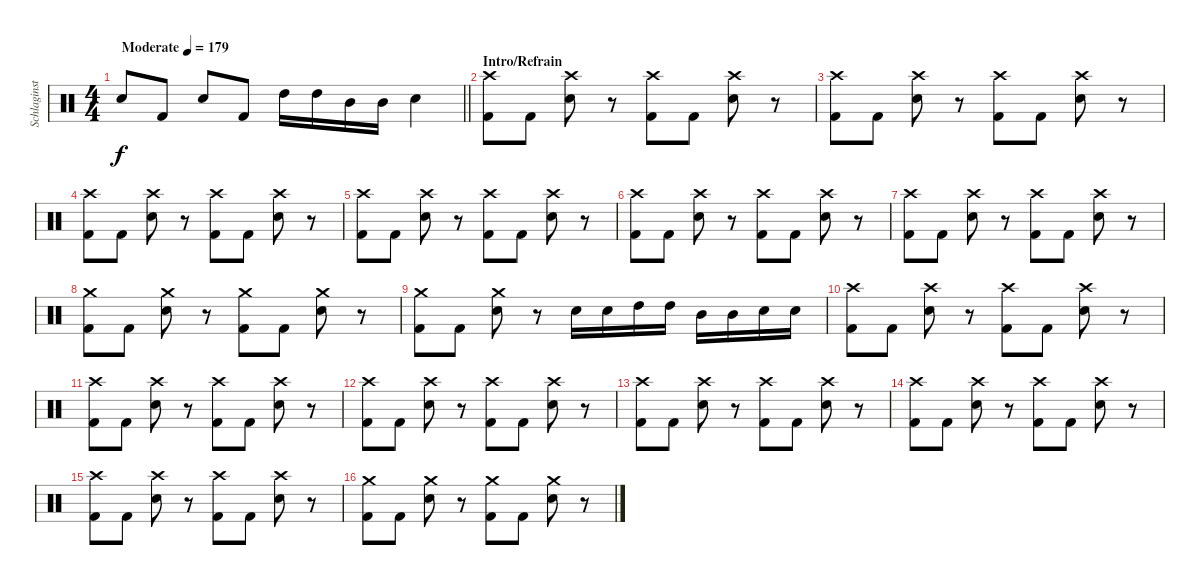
\track ("Schlaginstrumente - Auswahl" "Schlaginst") {instrument percussion}
\staff {score}
\articulation defaults
\ts (4 4)
\tempo (179 "Moderate")
\clef neutral
\barLineRight lightlight
\ks c "Electric Snare (hit)".8{dy f} "Kick (hit) 2".8 "Electric Snare (hit)".8 "Kick (hit) 2".8 "High Tom (hit)".16 "High Tom (hit)".16 "Mid Tom (hit)".16 "Mid Tom (hit)".16 "Electric Snare (hit)".4
|
\section ("" "Intro/Refrain")
("Kick (hit) 2" "Crash high (hit)").8 "Kick (hit) 2".8 ("Crash high (hit)" "Electric Snare (hit)").8 r.8 ("Kick (hit) 2" "Crash high (hit)").8 "Kick (hit) 2".8 ("Crash high (hit)" "Electric Snare (hit)").8 r.8 |
("Kick (hit) 2" "Crash high (hit)").8 "Kick (hit) 2".8 ("Crash high (hit)" "Electric Snare (hit)").8 r.8 ("Kick (hit) 2" "Crash high (hit)").8 "Kick (hit) 2".8 ("Crash high (hit)" "Electric Snare (hit)").8 r.8 |
("Kick (hit) 2" "Crash high (hit)").8 "Kick (hit) 2".8 ("Crash high (hit)" "Electric Snare (hit)").8 r.8 ("Kick (hit) 2" "Crash high (hit)").8 "Kick (hit) 2".8 ("Crash high (hit)" "Electric Snare (hit)").8 r.8 |
("Kick (hit) 2" "Crash high (hit)").8 "Kick (hit) 2".8 ("Crash high (hit)" "Electric Snare (hit)").8 r.8 ("Kick (hit) 2" "Crash high (hit)").8 "Kick (hit) 2".8 ("Crash high (hit)" "Electric Snare (hit)").8 r.8 |
("Kick (hit) 2" "Crash high (hit)").8 "Kick (hit) 2".8 ("Crash high (hit)" "Electric Snare (hit)").8 r.8 ("Kick (hit) 2" "Crash high (hit)").8 "Kick (hit) 2".8 ("Crash high (hit)" "Electric Snare (hit)").8 r.8 |
("Kick (hit) 2" "Crash high (hit)").8 "Kick (hit) 2".8 ("Crash high (hit)" "Electric Snare (hit)").8 r.8 ("Kick (hit) 2" "Crash high (hit)").8 "Kick (hit) 2".8 ("Crash high (hit)" "Electric Snare (hit)").8 r.8 |
("Kick (hit) 2" "Crash medium (hit)").8 "Kick (hit) 2".8 ("Crash medium (hit)" "Electric Snare (hit)").8 r.8 ("Kick (hit) 2" "Crash medium (hit)").8 "Kick (hit) 2".8 ("Crash medium (hit)" "Electric Snare (hit)").8 r.8 |
("Kick (hit) 2" "Crash medium (hit)").8 "Kick (hit) 2".8 ("Crash medium (hit)" "Electric Snare (hit)").8 r.8 "Electric Snare (hit)".16 "Electric Snare (hit)".16 "High Tom (hit)".16 "High Tom (hit)".16 "Mid Tom (hit)".16 "Mid Tom (hit)".16 "Electric Snare (hit)".16 "Electric Snare (hit)".16 |
("Kick (hit) 2" "Crash high (hit)").8 "Kick (hit) 2".8 ("Crash high (hit)" "Electric Snare (hit)").8 r.8 ("Kick (hit) 2" "Crash high (hit)").8 "Kick (hit) 2".8 ("Crash high (hit)" "Electric Snare (hit)").8 r.8 |
("Kick (hit) 2" "Crash high (hit)").8 "Kick (hit) 2".8 ("Crash high (hit)" "Electric Snare (hit)").8 r.8 ("Kick (hit) 2" "Crash high (hit)").8 "Kick (hit) 2".8 ("Crash high (hit)" "Electric Snare (hit)").8 r.8 |
("Kick (hit) 2" "Crash high (hit)").8 "Kick (hit) 2".8 ("Crash high (hit)" "Electric Snare (hit)").8 r.8 ("Kick (hit) 2" "Crash high (hit)").8 "Kick (hit) 2".8 ("Crash high (hit)" "Electric Snare (hit)").8 r.8 |
("Kick (hit) 2" "Crash high (hit)").8 "Kick (hit) 2".8 ("Crash high (hit)" "Electric Snare (hit)").8 r.8 ("Kick (hit) 2" "Crash high (hit)").8 "Kick (hit) 2".8 ("Crash high (hit)" "Electric Snare (hit)").8 r.8 |
("Kick (hit) 2" "Crash high (hit)").8 "Kick (hit) 2".8 ("Crash high (hit)" "Electric Snare (hit)").8 r.8 ("Kick (hit) 2" "Crash high (hit)").8 "Kick (hit) 2".8 ("Crash high (hit)" "Electric Snare (hit)").8 r.8 |
("Kick (hit) 2" "Crash high (hit)").8 "Kick (hit) 2".8 ("Crash high (hit)" "Electric Snare (hit)").8 r.8 ("Kick (hit) 2" "Crash high (hit)").8 "Kick (hit) 2".8 ("Crash high (hit)" "Electric Snare (hit)").8 r.8 |
("Kick (hit) 2" "Crash medium (hit)").8 "Kick (hit) 2".8 ("Crash medium (hit)" "Electric Snare (hit)").8 r.8 ("Kick (hit) 2" "Crash medium (hit)").8 "Kick (hit) 2".8 ("Crash medium (hit)" "Electric Snare (hit)").8 r.8
